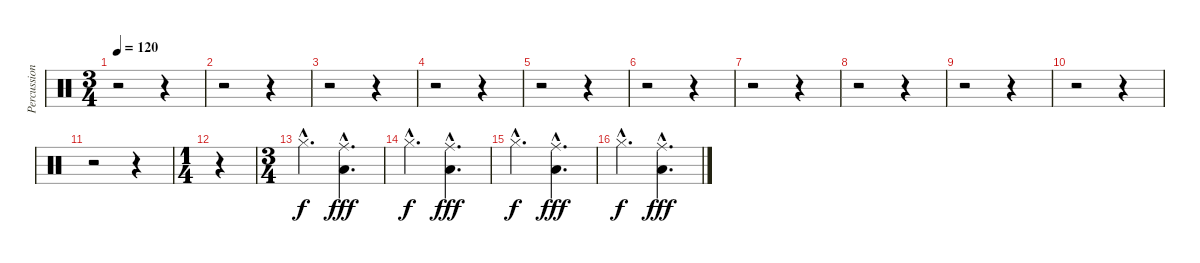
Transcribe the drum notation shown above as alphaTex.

\track ("Percussions" "Percussion") {instrument percussion}
\staff {score}
\articulation defaults
\ts (3 4)
\tempo 120
\clef neutral
\ks c
r.2{dy fff} r.4 |
r.2 r.4 |
r.2 r.4 |
r.2 r.4 |
r.2 r.4 |
r.2 r.4 |
r.2 r.4 |
r.2 r.4 |
r.2 r.4 |
r.2 r.4 |
r.2 r.4 |
\ts (1 4)
r.4 |
\ts (3 4)
"Hi-Hat (closed)"{hac}.4{d dy f} ("Ride (middle)"{hac} "Low Tom (hit)"{hac}).4{d dy fff} |
"Hi-Hat (closed)"{hac}.4{d dy f} ("Ride (middle)"{hac} "Low Tom (hit)"{hac}).4{d dy fff} |
"Hi-Hat (closed)"{hac}.4{d dy f} ("Ride (middle)"{hac} "Low Tom (hit)"{hac}).4{d dy fff} |
"Hi-Hat (closed)"{hac}.4{d dy f} ("Ride (middle)"{hac} "Low Tom (hit)"{hac}).4{d dy fff}
